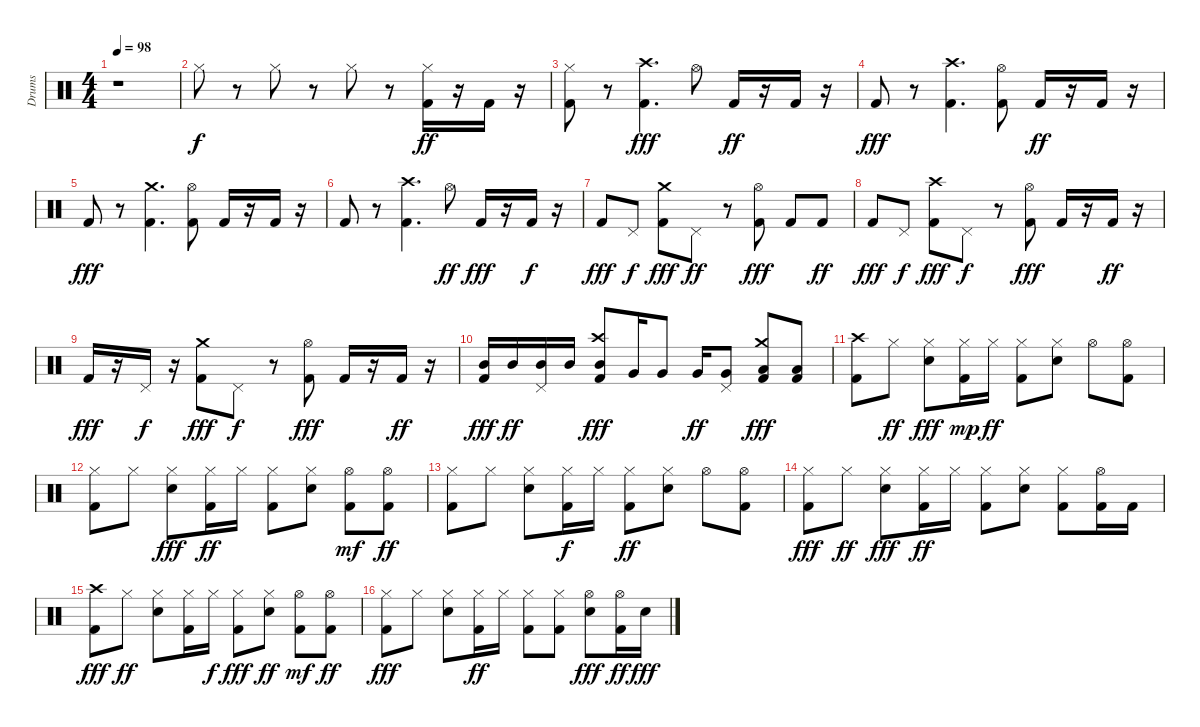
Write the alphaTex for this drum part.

\track ("Drums" "Drums") {instrument percussion}
\staff {score}
\articulation defaults
\ts (4 4)
\tempo 98
\clef neutral
\ks c
r.1{dy f} |
"Hi-Hat (closed)".8 r.8 "Hi-Hat (closed)".8 r.8 "Hi-Hat (closed)".8 r.8 ("Kick (hit) 2" "Hi-Hat (closed)").16{dy ff} r.16 "Kick (hit) 2".16 r.16 |
("Kick (hit) 2" "Hi-Hat (closed)").8 r.8 ("Kick (hit) 2" "Crash high (hit)").4{d dy fff} "Hi-Hat (open)".8 "Kick (hit) 2".16{dy ff} r.16 "Kick (hit) 2".16 r.16 |
"Kick (hit) 2".8{dy fff} r.8 ("Kick (hit) 2" "Crash high (hit)").4{d} ("Kick (hit) 2" "Hi-Hat (open)").8 "Kick (hit) 2".16{dy ff} r.16 "Kick (hit) 2".16 r.16 |
"Kick (hit) 2".8{dy fff} r.8 ("Kick (hit) 2" "Crash medium (hit)").4{d} ("Kick (hit) 2" "Hi-Hat (open)").8 "Kick (hit) 2".16 r.16 "Kick (hit) 2".16 r.16 |
"Kick (hit) 2".8 r.8 ("Kick (hit) 2" "Crash high (hit)").4{d} "Hi-Hat (open)".8{dy ff} "Kick (hit) 2".16{dy fff} r.16 "Kick (hit) 2".16{dy f} r.16 |
"Kick (hit) 2".8{dy fff} "Pedal Hi-Hat (hit)".8{dy f} ("Kick (hit) 2" "Crash medium (hit)").8{dy fff} "Pedal Hi-Hat (hit)".8{dy ff} r.8 ("Kick (hit) 2" "Hi-Hat (open)").8{dy fff} "Kick (hit) 2".8 "Kick (hit) 2".8{dy ff} |
"Kick (hit) 2".8{dy fff} "Pedal Hi-Hat (hit)".8{dy f} ("Kick (hit) 2" "Crash high (hit)").8{dy fff} "Pedal Hi-Hat (hit)".8{dy f} r.8 ("Kick (hit) 2" "Hi-Hat (open)").8{dy fff} "Kick (hit) 2".16 r.16 "Kick (hit) 2".16{dy ff} r.16 |
"Kick (hit) 2".16{dy fff} r.16 "Pedal Hi-Hat (hit)".16{dy f} r.16 ("Kick (hit) 2" "Crash medium (hit)").8{dy fff} "Pedal Hi-Hat (hit)".8{dy f} r.8 ("Kick (hit) 2" "Hi-Hat (open)").8{dy fff} "Kick (hit) 2".16 r.16 "Kick (hit) 2".16{dy ff} r.16 |
("Kick (hit) 2" "Mid Tom (hit)").16{dy fff} "Mid Tom (hit)".16{dy ff} ("Mid Tom (hit)" "Pedal Hi-Hat (hit)").16 "Mid Tom (hit)".16 ("Kick (hit) 2" "Mid Tom (hit)" "Crash high (hit)").8{dy fff} "Very Low Tom (hit)".16 "Very Low Tom (hit)".8 "Very Low Tom (hit)".16{dy ff} ("Very Low Tom (hit)" "Pedal Hi-Hat (hit)").8 ("Kick (hit) 2" "Low Floor Tom (hit)" "Crash medium (hit)").8{dy fff} ("Kick (hit) 2" "Low Floor Tom (hit)").8 |
("Kick (hit) 2" "Crash high (hit)").8 "Hi-Hat (closed)".8{dy ff} ("Snare (hit) 2" "Hi-Hat (closed)").8{dy fff} ("Kick (hit) 2" "Hi-Hat (closed)").16{dy mp} "Hi-Hat (closed)".16{dy ff} ("Kick (hit) 2" "Hi-Hat (closed)").8 ("Snare (hit) 2" "Hi-Hat (closed)").8 "Hi-Hat (open)".8 ("Kick (hit) 2" "Hi-Hat (open)").8 |
("Kick (hit) 2" "Hi-Hat (closed)").8 "Hi-Hat (closed)".8 ("Snare (hit) 2" "Hi-Hat (closed)").8{dy fff} ("Kick (hit) 2" "Hi-Hat (closed)").16{dy ff} "Hi-Hat (closed)".16 ("Kick (hit) 2" "Hi-Hat (closed)").8 ("Snare (hit) 2" "Hi-Hat (closed)").8 ("Kick (hit) 2" "Hi-Hat (open)").8{dy mf} ("Kick (hit) 2" "Hi-Hat (open)").8{dy ff} |
("Kick (hit) 2" "Hi-Hat (closed)").8 "Hi-Hat (closed)".8 ("Snare (hit) 2" "Hi-Hat (closed)").8 ("Kick (hit) 2" "Hi-Hat (closed)").16{dy f} "Hi-Hat (closed)".16 ("Kick (hit) 2" "Hi-Hat (closed)").8{dy ff} ("Snare (hit) 2" "Hi-Hat (closed)").8 "Hi-Hat (open)".8 ("Kick (hit) 2" "Hi-Hat (open)").8 |
("Kick (hit) 2" "Hi-Hat (closed)").8{dy fff} "Hi-Hat (closed)".8{dy ff} ("Snare (hit) 2" "Hi-Hat (closed)").8{dy fff} ("Kick (hit) 2" "Hi-Hat (closed)").16{dy ff} "Hi-Hat (closed)".16 ("Kick (hit) 2" "Hi-Hat (closed)").8 ("Snare (hit) 2" "Hi-Hat (closed)").8 ("Kick (hit) 2" "Hi-Hat (closed)").8 ("Kick (hit) 2" "Hi-Hat (open)").16 "Kick (hit) 2".16 |
("Kick (hit) 2" "Crash high (hit)").8{dy fff} "Hi-Hat (closed)".8{dy ff} ("Snare (hit) 2" "Hi-Hat (closed)").8 ("Kick (hit) 2" "Hi-Hat (closed)").16 "Hi-Hat (closed)".16{dy f} ("Kick (hit) 2" "Hi-Hat (closed)").8{dy fff} ("Snare (hit) 2" "Hi-Hat (closed)").8{dy ff} ("Kick (hit) 2" "Hi-Hat (open)").8{dy mf} ("Kick (hit) 2" "Hi-Hat (open)").8{dy ff} |
("Kick (hit) 2" "Hi-Hat (closed)").8{dy fff} "Hi-Hat (closed)".8 ("Snare (hit) 2" "Hi-Hat (closed)").8 ("Kick (hit) 2" "Hi-Hat (closed)").16{dy ff} "Hi-Hat (closed)".16 ("Kick (hit) 2" "Hi-Hat (closed)").8 ("Kick (hit) 2" "Hi-Hat (closed)").8 ("Snare (hit) 2" "Hi-Hat (open)").8{dy fff} ("Kick (hit) 2" "Hi-Hat (open)").16{dy ff} "Snare (hit) 2".16{dy fff}
